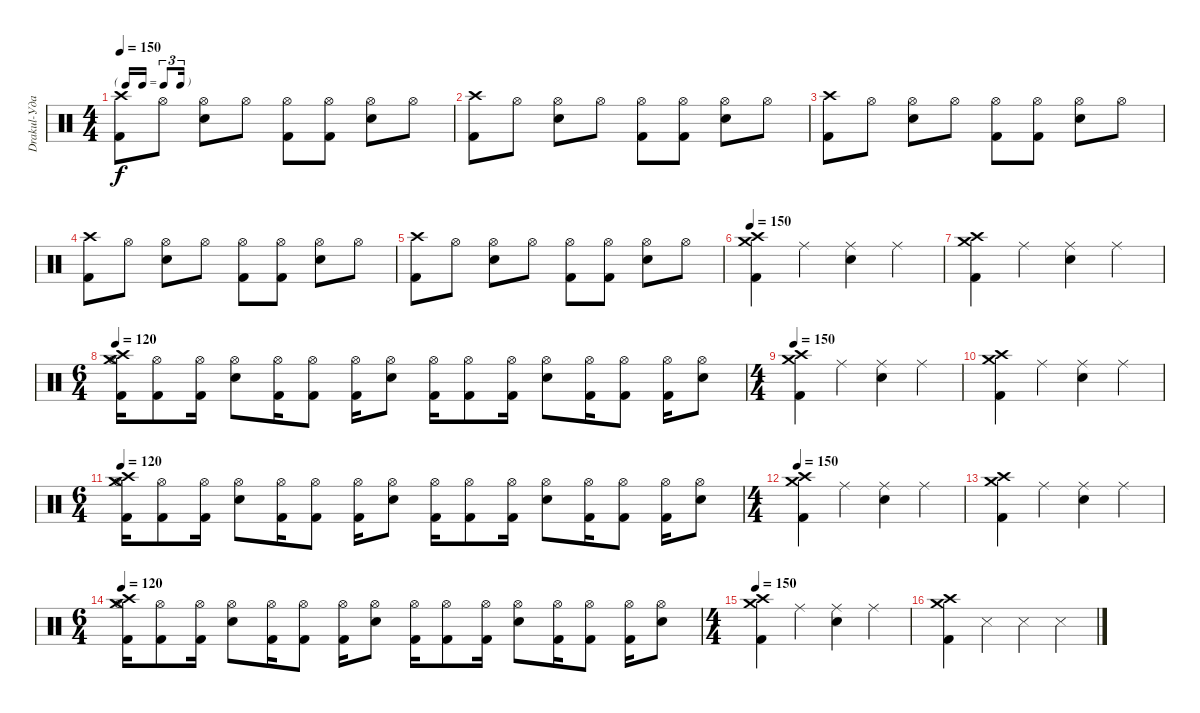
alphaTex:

\track ("Drakul-Ударные " "Drakul-Уда") {instrument percussion}
\staff {score}
\articulation defaults
\ts (4 4)
\tf triplet16th
\tempo 150
\clef neutral
\ks c
("Kick (hit) 2" "Crash high (hit)").8{dy f} "Hi-Hat (open)".8 ("Electric Snare (hit)" "Hi-Hat (open)").8 "Hi-Hat (open)".8 ("Kick (hit) 2" "Hi-Hat (open)").8 ("Kick (hit) 2" "Hi-Hat (open)").8 ("Electric Snare (hit)" "Hi-Hat (open)").8 "Hi-Hat (open)".8 |
("Kick (hit) 2" "Crash high (hit)").8 "Hi-Hat (open)".8 ("Electric Snare (hit)" "Hi-Hat (open)").8 "Hi-Hat (open)".8 ("Kick (hit) 2" "Hi-Hat (open)").8 ("Kick (hit) 2" "Hi-Hat (open)").8 ("Electric Snare (hit)" "Hi-Hat (open)").8 "Hi-Hat (open)".8 |
("Kick (hit) 2" "Crash high (hit)").8 "Hi-Hat (open)".8 ("Electric Snare (hit)" "Hi-Hat (open)").8 "Hi-Hat (open)".8 ("Kick (hit) 2" "Hi-Hat (open)").8 ("Kick (hit) 2" "Hi-Hat (open)").8 ("Electric Snare (hit)" "Hi-Hat (open)").8 "Hi-Hat (open)".8 |
("Kick (hit) 2" "Crash high (hit)").8 "Hi-Hat (open)".8 ("Electric Snare (hit)" "Hi-Hat (open)").8 "Hi-Hat (open)".8 ("Kick (hit) 2" "Hi-Hat (open)").8 ("Kick (hit) 2" "Hi-Hat (open)").8 ("Electric Snare (hit)" "Hi-Hat (open)").8 "Hi-Hat (open)".8 |
("Kick (hit) 2" "Crash high (hit)").8 "Hi-Hat (open)".8 ("Electric Snare (hit)" "Hi-Hat (open)").8 "Hi-Hat (open)".8 ("Kick (hit) 2" "Hi-Hat (open)").8 ("Kick (hit) 2" "Hi-Hat (open)").8 ("Electric Snare (hit)" "Hi-Hat (open)").8 "Hi-Hat (open)".8 |
\tempo 150
("Kick (hit) 2" "Crash high (hit)" "Crash medium (hit)").4 "Ride (middle)".4 ("Electric Snare (hit)" "Ride (middle)").4 "Ride (middle)".4 |
("Kick (hit) 2" "Crash high (hit)" "Crash medium (hit)").4 "Ride (middle)".4 ("Electric Snare (hit)" "Ride (middle)").4 "Ride (middle)".4 |
\ts (6 4)
\tempo 120
("Kick (hit) 2" "Hi-Hat (open)" "Crash high (hit)" "Crash medium (hit)").16 ("Kick (hit) 2" "Hi-Hat (open)").8 ("Kick (hit) 2" "Hi-Hat (open)").16 ("Electric Snare (hit)" "Hi-Hat (open)").8 ("Kick (hit) 2" "Hi-Hat (open)").16 ("Kick (hit) 2" "Hi-Hat (open)").8 ("Kick (hit) 2" "Hi-Hat (open)").16 ("Electric Snare (hit)" "Hi-Hat (open)").8 ("Kick (hit) 2" "Hi-Hat (open)").16 ("Kick (hit) 2" "Hi-Hat (open)").8 ("Kick (hit) 2" "Hi-Hat (open)").16 ("Electric Snare (hit)" "Hi-Hat (open)").8 ("Kick (hit) 2" "Hi-Hat (open)").16 ("Kick (hit) 2" "Hi-Hat (open)").8 ("Kick (hit) 2" "Hi-Hat (open)").16 ("Electric Snare (hit)" "Hi-Hat (open)").8 |
\ts (4 4)
\tempo 150
("Kick (hit) 2" "Crash high (hit)" "Crash medium (hit)").4 "Ride (middle)".4 ("Electric Snare (hit)" "Ride (middle)").4 "Ride (middle)".4 |
("Kick (hit) 2" "Crash high (hit)" "Crash medium (hit)").4 "Ride (middle)".4 ("Electric Snare (hit)" "Ride (middle)").4 "Ride (middle)".4 |
\ts (6 4)
\tempo 120
("Kick (hit) 2" "Hi-Hat (open)" "Crash high (hit)" "Crash medium (hit)").16 ("Kick (hit) 2" "Hi-Hat (open)").8 ("Kick (hit) 2" "Hi-Hat (open)").16 ("Electric Snare (hit)" "Hi-Hat (open)").8 ("Kick (hit) 2" "Hi-Hat (open)").16 ("Kick (hit) 2" "Hi-Hat (open)").8 ("Kick (hit) 2" "Hi-Hat (open)").16 ("Electric Snare (hit)" "Hi-Hat (open)").8 ("Kick (hit) 2" "Hi-Hat (open)").16 ("Kick (hit) 2" "Hi-Hat (open)").8 ("Kick (hit) 2" "Hi-Hat (open)").16 ("Electric Snare (hit)" "Hi-Hat (open)").8 ("Kick (hit) 2" "Hi-Hat (open)").16 ("Kick (hit) 2" "Hi-Hat (open)").8 ("Kick (hit) 2" "Hi-Hat (open)").16 ("Electric Snare (hit)" "Hi-Hat (open)").8 |
\ts (4 4)
\tempo 150
("Kick (hit) 2" "Crash high (hit)" "Crash medium (hit)").4 "Ride (middle)".4 ("Electric Snare (hit)" "Ride (middle)").4 "Ride (middle)".4 |
("Kick (hit) 2" "Crash high (hit)" "Crash medium (hit)").4 "Ride (middle)".4 ("Electric Snare (hit)" "Ride (middle)").4 "Ride (middle)".4 |
\ts (6 4)
\tempo 120
("Kick (hit) 2" "Hi-Hat (open)" "Crash high (hit)" "Crash medium (hit)").16 ("Kick (hit) 2" "Hi-Hat (open)").8 ("Kick (hit) 2" "Hi-Hat (open)").16 ("Electric Snare (hit)" "Hi-Hat (open)").8 ("Kick (hit) 2" "Hi-Hat (open)").16 ("Kick (hit) 2" "Hi-Hat (open)").8 ("Kick (hit) 2" "Hi-Hat (open)").16 ("Electric Snare (hit)" "Hi-Hat (open)").8 ("Kick (hit) 2" "Hi-Hat (open)").16 ("Kick (hit) 2" "Hi-Hat (open)").8 ("Kick (hit) 2" "Hi-Hat (open)").16 ("Electric Snare (hit)" "Hi-Hat (open)").8 ("Kick (hit) 2" "Hi-Hat (open)").16 ("Kick (hit) 2" "Hi-Hat (open)").8 ("Kick (hit) 2" "Hi-Hat (open)").16 ("Electric Snare (hit)" "Hi-Hat (open)").8 |
\ts (4 4)
\tempo 150
("Kick (hit) 2" "Crash high (hit)" "Crash medium (hit)").4 "Ride (middle)".4 ("Electric Snare (hit)" "Ride (middle)").4 "Ride (middle)".4 |
("Kick (hit) 2" "Crash high (hit)" "Crash medium (hit)").4 "Snare (side stick) 3".4 "Snare (side stick) 3".4 "Snare (side stick) 3".4
